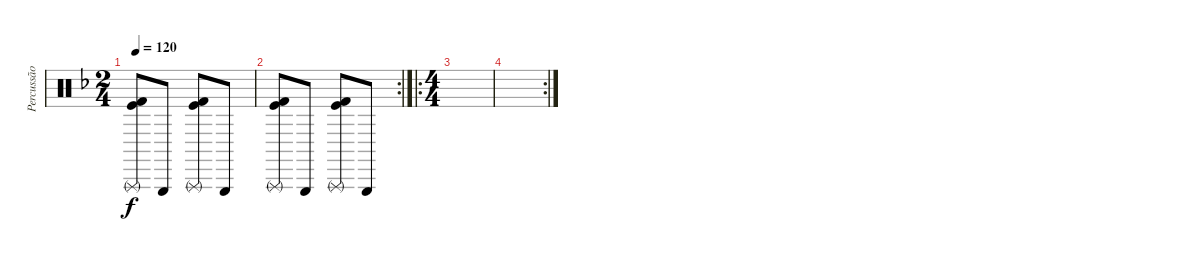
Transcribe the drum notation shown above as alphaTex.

\track ("Percussão" "Percussão") {instrument percussion bank 1}
\staff {score}
\articulation defaults
\ts (2 4)
\tempo 120
\clef neutral
\ks f
("Kick (hit) 2" "Kick (hit)" "Triangle (rnute)").8{dy f} "Triangle (hit)".8 ("Kick (hit) 2" "Kick (hit)" "Triangle (rnute)").8 "Triangle (hit)".8 |
\rc 2
("Kick (hit) 2" "Kick (hit)" "Triangle (rnute)").8 "Triangle (hit)".8 ("Kick (hit) 2" "Kick (hit)" "Triangle (rnute)").8 "Triangle (hit)".8 |
\ro
\ts (4 4)
|
\rc 2
